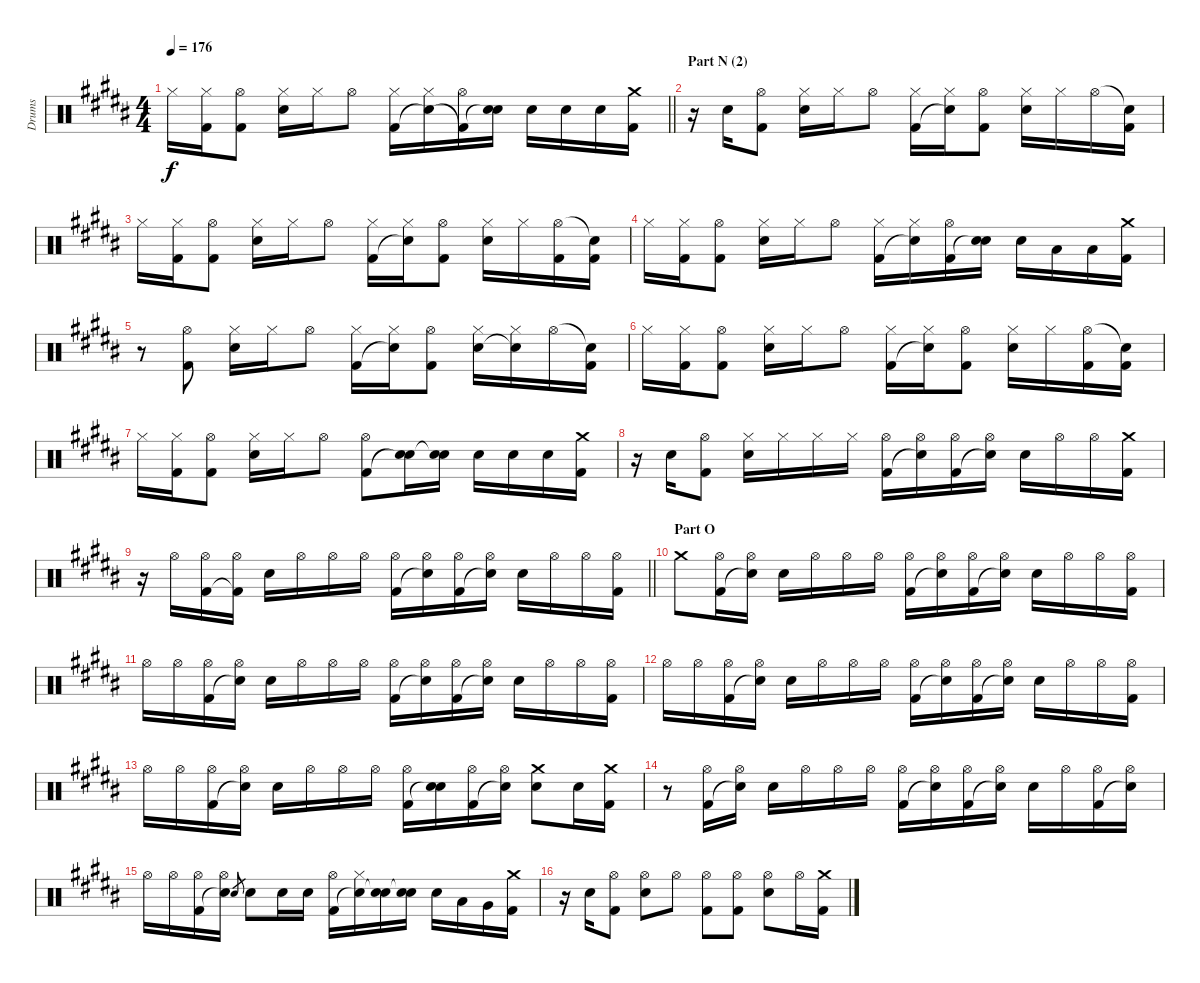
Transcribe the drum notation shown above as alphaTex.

\track ("Drums" "Drums") {instrument percussion}
\staff {score}
\articulation defaults
\ts (4 4)
\tempo 176
\clef neutral
\barLineRight lightlight
\ks b "Hi-Hat (closed)".16{dy f}
("Hi-Hat (closed)" "Kick (hit) 2").16 ("Hi-Hat (open)" "Kick (hit) 2").8 ("Hi-Hat (closed)" "Electric Snare (hit)").16 "Hi-Hat (closed)".16 "Hi-Hat (open)".8 ("Hi-Hat (closed)" "Kick (hit) 2").16 ("Hi-Hat (closed)" "Snare (hit)"{t}).16 ("Hi-Hat (open)" "Kick (hit) 2"{t}).16 ("Electric Snare (hit)" "Snare (hit)"{t}).16 "Electric Snare (hit)".16 "Electric Snare (hit)".16 "Electric Snare (hit)".16 ("Crash medium (hit)" "Kick (hit) 2").16 |
\section ("" "Part N (2)")
r.16 "Electric Snare (hit)".16 ("Hi-Hat (open)" "Kick (hit) 2").8 ("Hi-Hat (closed)" "Electric Snare (hit)").16 "Hi-Hat (closed)".16 "Hi-Hat (open)".8 ("Hi-Hat (closed)" "Kick (hit) 2").16 ("Hi-Hat (closed)" "Snare (hit)"{t}).16 ("Hi-Hat (open)" "Kick (hit) 2").8 ("Hi-Hat (closed)" "Electric Snare (hit)").16 "Hi-Hat (closed)".16 "Hi-Hat (open)".16 ("Snare (hit)"{t} "Kick (hit) 2").16 |
"Hi-Hat (closed)".16 ("Hi-Hat (closed)" "Kick (hit) 2").16 ("Hi-Hat (open)" "Kick (hit) 2").8 ("Hi-Hat (closed)" "Electric Snare (hit)").16 "Hi-Hat (closed)".16 "Hi-Hat (open)".8 ("Hi-Hat (closed)" "Kick (hit) 2").16 ("Hi-Hat (closed)" "Snare (hit)"{t}).16 ("Hi-Hat (open)" "Kick (hit) 2").8 ("Hi-Hat (closed)" "Electric Snare (hit)").16 "Hi-Hat (closed)".16 ("Hi-Hat (open)" "Kick (hit) 2").16 ("Snare (hit)"{t} "Kick (hit) 2").16 |
"Hi-Hat (closed)".16 ("Hi-Hat (closed)" "Kick (hit) 2").16 ("Hi-Hat (open)" "Kick (hit) 2").8 ("Hi-Hat (closed)" "Electric Snare (hit)").16 "Hi-Hat (closed)".16 "Hi-Hat (open)".8 ("Hi-Hat (closed)" "Kick (hit) 2").16 ("Hi-Hat (closed)" "Snare (hit)"{t}).16 ("Hi-Hat (open)" "Kick (hit) 2").16 ("Electric Snare (hit)" "Snare (hit)"{t}).16 "Electric Snare (hit)".16 "Low Tom (hit)".16 "Low Tom (hit)".16 ("Crash medium (hit)" "Kick (hit) 2").16 |
r.8 ("Hi-Hat (open)" "Kick (hit) 2").8 ("Hi-Hat (closed)" "Electric Snare (hit)").16 "Hi-Hat (closed)".16 "Hi-Hat (open)".8 ("Hi-Hat (closed)" "Kick (hit) 2").16 ("Hi-Hat (closed)" "Snare (hit)"{t}).16 ("Hi-Hat (open)" "Kick (hit) 2").8 ("Hi-Hat (closed)" "Electric Snare (hit)").16 ("Hi-Hat (closed)" "Snare (hit)"{t}).16 "Hi-Hat (open)".16 ("Snare (hit)"{t} "Kick (hit) 2").16 |
"Hi-Hat (closed)".16 ("Hi-Hat (closed)" "Kick (hit) 2").16 ("Hi-Hat (open)" "Kick (hit) 2").8 ("Hi-Hat (closed)" "Electric Snare (hit)").16 "Hi-Hat (closed)".16 "Hi-Hat (open)".8 ("Hi-Hat (closed)" "Kick (hit) 2").16 ("Hi-Hat (closed)" "Snare (hit)"{t}).16 ("Hi-Hat (open)" "Kick (hit) 2").8 ("Hi-Hat (closed)" "Electric Snare (hit)").16 "Hi-Hat (closed)".16 ("Hi-Hat (open)" "Kick (hit) 2").16 ("Snare (hit)"{t} "Kick (hit) 2").16 |
"Hi-Hat (closed)".16 ("Hi-Hat (closed)" "Kick (hit) 2").16 ("Hi-Hat (open)" "Kick (hit) 2").8 ("Hi-Hat (closed)" "Electric Snare (hit)").16 "Hi-Hat (closed)".16 "Hi-Hat (open)".8 ("Hi-Hat (open)" "Kick (hit) 2").8 ("Electric Snare (hit)" "Snare (hit)"{t}).16 ("Electric Snare (hit)" "Snare (hit)"{t}).16 "Electric Snare (hit)".16 "Electric Snare (hit)".16 "Electric Snare (hit)".16 ("Crash medium (hit)" "Kick (hit) 2").16 |
r.16 "Electric Snare (hit)".16 ("Hi-Hat (open)" "Kick (hit) 2").8 ("Hi-Hat (closed)" "Electric Snare (hit)").16 "Hi-Hat (closed)".16 "Hi-Hat (closed)".16 "Hi-Hat (closed)".16 ("Hi-Hat (open)" "Kick (hit) 2").16 ("Hi-Hat (open)" "Snare (hit)"{t}).16 ("Hi-Hat (open)" "Kick (hit) 2").16 ("Hi-Hat (open)" "Snare (hit)"{t}).16 "Electric Snare (hit)".16 "Hi-Hat (open)".16 "Hi-Hat (open)".16 ("Crash medium (hit)" "Kick (hit) 2").16 |
\barLineRight lightlight
r.16 "Hi-Hat (open)".16 ("Hi-Hat (open)" "Kick (hit) 2").16 ("Hi-Hat (open)" "Kick (hit) 2"{t}).16 "Electric Snare (hit)".16 "Hi-Hat (open)".16 "Hi-Hat (open)".16 "Hi-Hat (open)".16 ("Hi-Hat (open)" "Kick (hit) 2").16 ("Hi-Hat (open)" "Snare (hit)"{t}).16 ("Hi-Hat (open)" "Kick (hit) 2").16 ("Hi-Hat (open)" "Snare (hit)"{t}).16 "Electric Snare (hit)".16 "Hi-Hat (open)".16 "Hi-Hat (open)".16 ("Hi-Hat (open)" "Kick (hit) 2").16 |
\section ("" "Part O")
"Crash medium (hit)".8 ("Hi-Hat (open)" "Kick (hit) 2").16 ("Hi-Hat (open)" "Snare (hit)"{t}).16 "Electric Snare (hit)".16 "Hi-Hat (open)".16 "Hi-Hat (open)".16 "Hi-Hat (open)".16 ("Hi-Hat (open)" "Kick (hit) 2").16 ("Hi-Hat (open)" "Snare (hit)"{t}).16 ("Hi-Hat (open)" "Kick (hit) 2").16 ("Hi-Hat (open)" "Snare (hit)"{t}).16 "Electric Snare (hit)".16 "Hi-Hat (open)".16 "Hi-Hat (open)".16 ("Hi-Hat (open)" "Kick (hit) 2").16 |
"Hi-Hat (open)".16 "Hi-Hat (open)".16 ("Hi-Hat (open)" "Kick (hit) 2").16 ("Hi-Hat (open)" "Snare (hit)"{t}).16 "Electric Snare (hit)".16 "Hi-Hat (open)".16 "Hi-Hat (open)".16 "Hi-Hat (open)".16 ("Hi-Hat (open)" "Kick (hit) 2").16 ("Hi-Hat (open)" "Snare (hit)"{t}).16 ("Hi-Hat (open)" "Kick (hit) 2").16 ("Hi-Hat (open)" "Snare (hit)"{t}).16 "Electric Snare (hit)".16 "Hi-Hat (open)".16 "Hi-Hat (open)".16 ("Hi-Hat (open)" "Kick (hit) 2").16 |
"Hi-Hat (open)".16 "Hi-Hat (open)".16 ("Hi-Hat (open)" "Kick (hit) 2").16 ("Hi-Hat (open)" "Snare (hit)"{t}).16 "Electric Snare (hit)".16 "Hi-Hat (open)".16 "Hi-Hat (open)".16 "Hi-Hat (open)".16 ("Hi-Hat (open)" "Kick (hit) 2").16 ("Hi-Hat (open)" "Snare (hit)"{t}).16 ("Hi-Hat (open)" "Kick (hit) 2").16 ("Hi-Hat (open)" "Snare (hit)"{t}).16 "Electric Snare (hit)".16 "Hi-Hat (open)".16 "Hi-Hat (open)".16 ("Hi-Hat (open)" "Kick (hit) 2").16 |
"Hi-Hat (open)".16 "Hi-Hat (open)".16 ("Hi-Hat (open)" "Kick (hit) 2").16 ("Hi-Hat (open)" "Snare (hit)"{t}).16 "Electric Snare (hit)".16 "Hi-Hat (open)".16 "Hi-Hat (open)".16 "Hi-Hat (open)".16 ("Hi-Hat (open)" "Kick (hit) 2").16 ("Electric Snare (hit)" "Snare (hit)"{t}).16 ("Hi-Hat (open)" "Kick (hit) 2").16 ("Hi-Hat (open)" "Snare (hit)"{t}).16 ("Crash medium (hit)" "Electric Snare (hit)").8 "Electric Snare (hit)".16 ("Crash medium (hit)" "Kick (hit) 2").16 |
r.8 ("Hi-Hat (open)" "Kick (hit) 2").16 ("Hi-Hat (open)" "Snare (hit)"{t}).16 "Electric Snare (hit)".16 "Hi-Hat (open)".16 "Hi-Hat (open)".16 "Hi-Hat (open)".16 ("Hi-Hat (open)" "Kick (hit) 2").16 ("Hi-Hat (open)" "Snare (hit)"{t}).16 ("Hi-Hat (open)" "Kick (hit) 2").16 ("Hi-Hat (open)" "Snare (hit)"{t}).16 "Electric Snare (hit)".16 "Hi-Hat (open)".16 ("Hi-Hat (open)" "Kick (hit) 2").16 ("Hi-Hat (open)" "Snare (hit)"{t}).16 |
"Hi-Hat (open)".16 "Hi-Hat (open)".16 ("Hi-Hat (open)" "Kick (hit) 2").16 ("Hi-Hat (open)" "Snare (hit)"{t}).16 "Electric Snare (hit)".8{gr} "Electric Snare (hit)".8 "Electric Snare (hit)".16 "Electric Snare (hit)".16 ("Hi-Hat (open)" "Kick (hit) 2").16 ("Hi-Hat (closed)" "Snare (hit)"{t}).16 ("Electric Snare (hit)" "Snare (hit)"{t}).16 ("Electric Snare (hit)" "Snare (hit)"{t}).16 "Electric Snare (hit)".16 "Low Tom (hit)".16 "Very Low Tom (hit)".16 ("Crash medium (hit)" "Kick (hit) 2").16 |
r.16 "Electric Snare (hit)".16 ("Hi-Hat (open)" "Kick (hit) 2").8 ("Hi-Hat (open)" "Electric Snare (hit)").8 "Hi-Hat (open)".8 ("Hi-Hat (open)" "Kick (hit) 2").8 ("Hi-Hat (open)" "Kick (hit) 2").8 ("Hi-Hat (open)" "Electric Snare (hit)").8 "Hi-Hat (open)".16 ("Crash medium (hit)" "Kick (hit) 2").16
